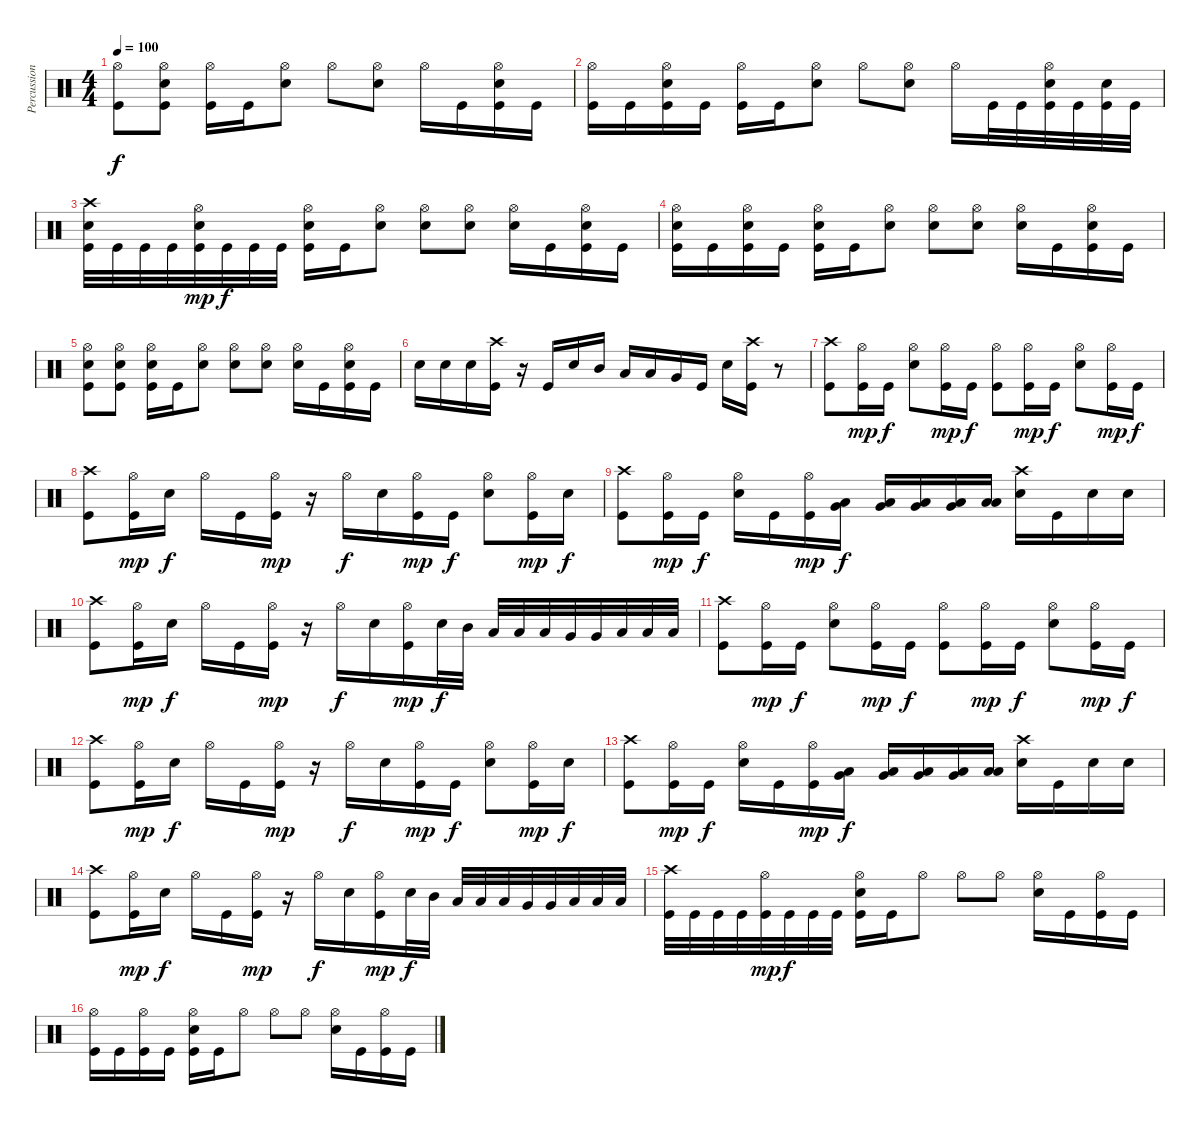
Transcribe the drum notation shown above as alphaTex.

\track ("Percussion" "Percussion") {instrument percussion}
\staff {score}
\articulation defaults
\ts (4 4)
\tempo 100
\clef neutral
\ks c
("Hi-Hat (open)" "Kick (hit)").8{dy f} ("Hi-Hat (open)" "Electric Snare (hit)" "Kick (hit)").8 ("Hi-Hat (open)" "Kick (hit)").16 "Kick (hit)".16 ("Hi-Hat (open)" "Electric Snare (hit)").8 "Hi-Hat (open)".8 ("Hi-Hat (open)" "Electric Snare (hit)").8 "Hi-Hat (open)".16 "Kick (hit)".16 ("Hi-Hat (open)" "Electric Snare (hit)" "Kick (hit)").16 "Kick (hit)".16 |
("Hi-Hat (open)" "Kick (hit)").16 "Kick (hit)".16 ("Hi-Hat (open)" "Electric Snare (hit)" "Kick (hit)").16 "Kick (hit)".16 ("Hi-Hat (open)" "Kick (hit)").16 "Kick (hit)".16 ("Hi-Hat (open)" "Electric Snare (hit)").8 "Hi-Hat (open)".8 ("Hi-Hat (open)" "Electric Snare (hit)").8 "Hi-Hat (open)".16 "Kick (hit)".32 "Kick (hit)".32 ("Hi-Hat (open)" "Electric Snare (hit)" "Kick (hit)").32 "Kick (hit)".32 ("Electric Snare (hit)" "Kick (hit)").32 "Kick (hit)".32 |
("Crash high (hit)" "Electric Snare (hit)" "Kick (hit)").32 "Kick (hit)".32 "Kick (hit)".32 "Kick (hit)".32 ("Hi-Hat (open)" "Electric Snare (hit)" "Kick (hit)").32{dy mp} "Kick (hit)".32{dy f} "Kick (hit)".32 "Kick (hit)".32 ("Hi-Hat (open)" "Electric Snare (hit)" "Kick (hit)").16 "Kick (hit)".16 ("Hi-Hat (open)" "Electric Snare (hit)").8 ("Hi-Hat (open)" "Electric Snare (hit)").8 ("Hi-Hat (open)" "Electric Snare (hit)").8 ("Hi-Hat (open)" "Electric Snare (hit)").16 "Kick (hit)".16 ("Hi-Hat (open)" "Electric Snare (hit)" "Kick (hit)").16 "Kick (hit)".16 |
("Hi-Hat (open)" "Electric Snare (hit)" "Kick (hit)").16 "Kick (hit)".16 ("Hi-Hat (open)" "Electric Snare (hit)" "Kick (hit)").16 "Kick (hit)".16 ("Hi-Hat (open)" "Electric Snare (hit)" "Kick (hit)").16 "Kick (hit)".16 ("Hi-Hat (open)" "Electric Snare (hit)").8 ("Hi-Hat (open)" "Electric Snare (hit)").8 ("Hi-Hat (open)" "Electric Snare (hit)").8 ("Hi-Hat (open)" "Electric Snare (hit)").16 "Kick (hit)".16 ("Hi-Hat (open)" "Electric Snare (hit)" "Kick (hit)").16 "Kick (hit)".16 |
("Hi-Hat (open)" "Electric Snare (hit)" "Kick (hit)").8 ("Hi-Hat (open)" "Electric Snare (hit)" "Kick (hit)").8 ("Hi-Hat (open)" "Electric Snare (hit)" "Kick (hit)").16 "Kick (hit)".16 ("Hi-Hat (open)" "Electric Snare (hit)").8 ("Hi-Hat (open)" "Electric Snare (hit)").8 ("Hi-Hat (open)" "Electric Snare (hit)").8 ("Hi-Hat (open)" "Electric Snare (hit)").16 "Kick (hit)".16 ("Hi-Hat (open)" "Electric Snare (hit)" "Kick (hit)").16 "Kick (hit)".16 |
"Electric Snare (hit)".16 "Electric Snare (hit)".16 "Electric Snare (hit)".16 ("Crash high (hit)" "Kick (hit)").16 r.16 "Kick (hit)".16 "Electric Snare (hit)".16 "Mid Tom (hit)".16 "Low Tom (hit)".16 "Low Tom (hit)".16 "Very Low Tom (hit)".16 "Kick (hit)".16 "Electric Snare (hit)".16 ("Crash high (hit)" "Kick (hit)").16 r.8 |
("Crash high (hit)" "Kick (hit)").8 ("Hi-Hat (open)" "Kick (hit)").16{dy mp} "Kick (hit)".16{dy f} ("Hi-Hat (open)" "Electric Snare (hit)").8 ("Hi-Hat (open)" "Kick (hit)").16{dy mp} "Kick (hit)".16{dy f} ("Hi-Hat (open)" "Kick (hit)").8 ("Hi-Hat (open)" "Kick (hit)").16{dy mp} "Kick (hit)".16{dy f} ("Hi-Hat (open)" "Electric Snare (hit)").8 ("Hi-Hat (open)" "Kick (hit)").16{dy mp} "Kick (hit)".16{dy f} |
("Crash high (hit)" "Kick (hit)").8 ("Hi-Hat (open)" "Kick (hit)").16{dy mp} "Electric Snare (hit)".16{dy f} "Hi-Hat (open)".16 "Kick (hit)".16 ("Hi-Hat (open)" "Kick (hit)").16{dy mp} r.16 "Hi-Hat (open)".16{dy f} "Electric Snare (hit)".16 ("Hi-Hat (open)" "Kick (hit)").16{dy mp} "Kick (hit)".16{dy f} ("Hi-Hat (open)" "Electric Snare (hit)").8 ("Hi-Hat (open)" "Kick (hit)").16{dy mp} "Electric Snare (hit)".16{dy f} |
("Crash high (hit)" "Kick (hit)").8 ("Hi-Hat (open)" "Kick (hit)").16{dy mp} "Kick (hit)".16{dy f} ("Hi-Hat (open)" "Electric Snare (hit)").16 "Kick (hit)".16 ("Hi-Hat (open)" "Kick (hit)").16{dy mp} ("Low Tom (hit)" "Very Low Tom (hit)").16{dy f} ("Low Tom (hit)" "Very Low Tom (hit)").16 ("Very Low Tom (hit)" "Low Floor Tom (hit)").16 ("Very Low Tom (hit)" "Low Floor Tom (hit)").16 ("Low Floor Tom (hit)" "Low Floor Tom (hit)").16 ("Crash high (hit)" "Electric Snare (hit)").16 "Kick (hit)".16 "Electric Snare (hit)".16 "Electric Snare (hit)".16 |
("Crash high (hit)" "Kick (hit)").8 ("Hi-Hat (open)" "Kick (hit)").16{dy mp} "Electric Snare (hit)".16{dy f} "Hi-Hat (open)".16 "Kick (hit)".16 ("Hi-Hat (open)" "Kick (hit)").16{dy mp} r.16 "Hi-Hat (open)".16{dy f} "Electric Snare (hit)".16 ("Hi-Hat (open)" "Kick (hit)").16{dy mp} "Electric Snare (hit)".32{dy f} "Mid Tom (hit)".32 "Low Tom (hit)".32 "Low Tom (hit)".32 "Low Tom (hit)".32 "Very Low Tom (hit)".32 "Very Low Tom (hit)".32 "Low Floor Tom (hit)".32 "Low Floor Tom (hit)".32 "Low Floor Tom (hit)".32 |
("Crash high (hit)" "Kick (hit)").8 ("Hi-Hat (open)" "Kick (hit)").16{dy mp} "Kick (hit)".16{dy f} ("Hi-Hat (open)" "Electric Snare (hit)").8 ("Hi-Hat (open)" "Kick (hit)").16{dy mp} "Kick (hit)".16{dy f} ("Hi-Hat (open)" "Kick (hit)").8 ("Hi-Hat (open)" "Kick (hit)").16{dy mp} "Kick (hit)".16{dy f} ("Hi-Hat (open)" "Electric Snare (hit)").8 ("Hi-Hat (open)" "Kick (hit)").16{dy mp} "Kick (hit)".16{dy f} |
("Crash high (hit)" "Kick (hit)").8 ("Hi-Hat (open)" "Kick (hit)").16{dy mp} "Electric Snare (hit)".16{dy f} "Hi-Hat (open)".16 "Kick (hit)".16 ("Hi-Hat (open)" "Kick (hit)").16{dy mp} r.16 "Hi-Hat (open)".16{dy f} "Electric Snare (hit)".16 ("Hi-Hat (open)" "Kick (hit)").16{dy mp} "Kick (hit)".16{dy f} ("Hi-Hat (open)" "Electric Snare (hit)").8 ("Hi-Hat (open)" "Kick (hit)").16{dy mp} "Electric Snare (hit)".16{dy f} |
("Crash high (hit)" "Kick (hit)").8 ("Hi-Hat (open)" "Kick (hit)").16{dy mp} "Kick (hit)".16{dy f} ("Hi-Hat (open)" "Electric Snare (hit)").16 "Kick (hit)".16 ("Hi-Hat (open)" "Kick (hit)").16{dy mp} ("Low Tom (hit)" "Very Low Tom (hit)").16{dy f} ("Low Tom (hit)" "Very Low Tom (hit)").16 ("Very Low Tom (hit)" "Low Floor Tom (hit)").16 ("Very Low Tom (hit)" "Low Floor Tom (hit)").16 ("Low Floor Tom (hit)" "Low Floor Tom (hit)").16 ("Crash high (hit)" "Electric Snare (hit)").16 "Kick (hit)".16 "Electric Snare (hit)".16 "Electric Snare (hit)".16 |
("Crash high (hit)" "Kick (hit)").8 ("Hi-Hat (open)" "Kick (hit)").16{dy mp} "Electric Snare (hit)".16{dy f} "Hi-Hat (open)".16 "Kick (hit)".16 ("Hi-Hat (open)" "Kick (hit)").16{dy mp} r.16 "Hi-Hat (open)".16{dy f} "Electric Snare (hit)".16 ("Hi-Hat (open)" "Kick (hit)").16{dy mp} "Electric Snare (hit)".32{dy f} "Mid Tom (hit)".32 "Low Tom (hit)".32 "Low Tom (hit)".32 "Low Tom (hit)".32 "Very Low Tom (hit)".32 "Very Low Tom (hit)".32 "Low Floor Tom (hit)".32 "Low Floor Tom (hit)".32 "Low Floor Tom (hit)".32 |
("Crash high (hit)" "Kick (hit)").32 "Kick (hit)".32 "Kick (hit)".32 "Kick (hit)".32 ("Hi-Hat (open)" "Kick (hit)").32{dy mp} "Kick (hit)".32{dy f} "Kick (hit)".32 "Kick (hit)".32 ("Hi-Hat (open)" "Electric Snare (hit)" "Kick (hit)").16 "Kick (hit)".16 "Hi-Hat (open)".8 "Hi-Hat (open)".8 "Hi-Hat (open)".8 ("Hi-Hat (open)" "Electric Snare (hit)").16 "Kick (hit)".16 ("Hi-Hat (open)" "Kick (hit)").16 "Kick (hit)".16 |
("Hi-Hat (open)" "Kick (hit)").16 "Kick (hit)".16 ("Hi-Hat (open)" "Kick (hit)").16 "Kick (hit)".16 ("Hi-Hat (open)" "Electric Snare (hit)" "Kick (hit)").16 "Kick (hit)".16 "Hi-Hat (open)".8 "Hi-Hat (open)".8 "Hi-Hat (open)".8 ("Hi-Hat (open)" "Electric Snare (hit)").16 "Kick (hit)".16 ("Hi-Hat (open)" "Kick (hit)").16 "Kick (hit)".16
